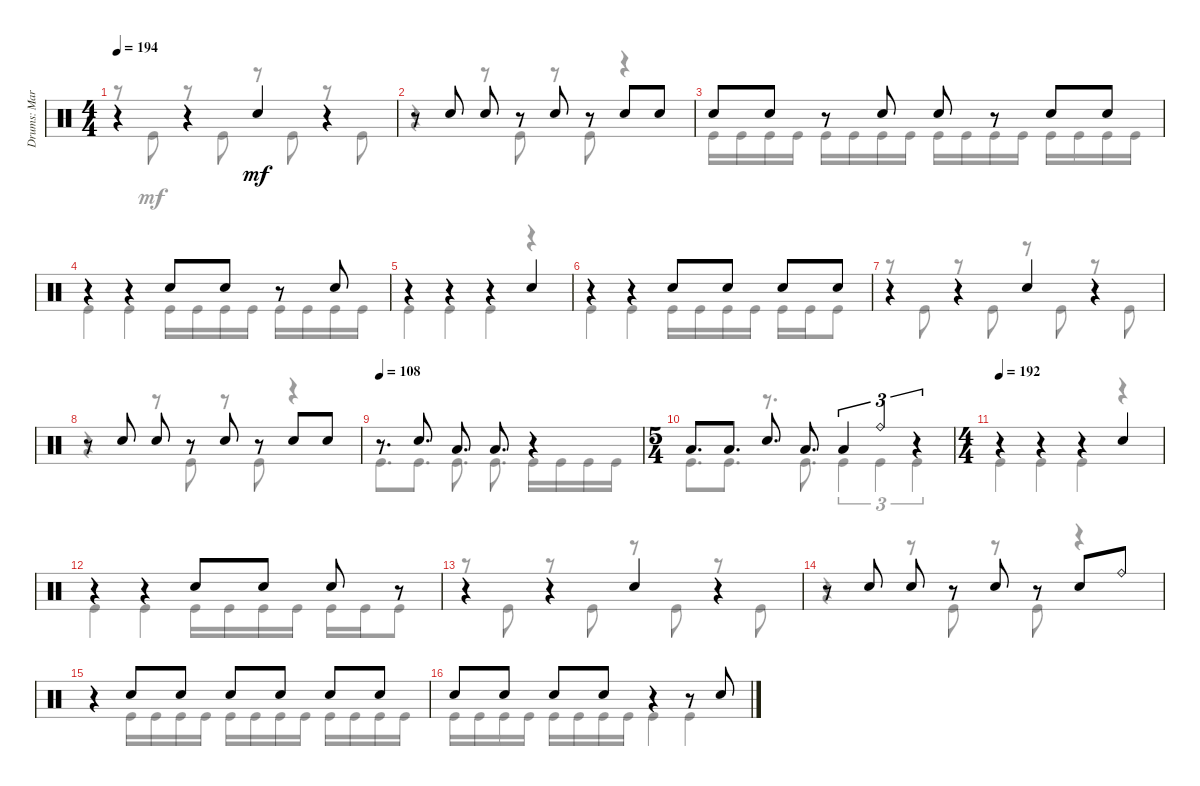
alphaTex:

\track ("Drums: Mario Duplantier" "Drums: Mar") {instrument percussion}
\staff {score}
\articulation defaults
\voice
\ts (4 4)
\tempo 194
\clef neutral
\ks c
r.4{dy mf} r.4 "Snare (hit) 2".4 r.4 |
r.8 "Snare (hit) 2".8 "Snare (hit) 2".8 r.8 "Snare (hit) 2".8 r.8 "Snare (hit) 2".8 "Snare (hit) 2".8 |
"Snare (hit) 2".8 "Snare (hit) 2".8 r.8 "Snare (hit) 2".8 "Snare (hit) 2".8 r.8 "Snare (hit) 2".8 "Snare (hit) 2".8 |
r.4 r.4 "Snare (hit) 2".8 "Snare (hit) 2".8 r.8 "Snare (hit) 2".8 |
r.4 r.4 r.4 "Snare (hit) 2".4 |
r.4 r.4 "Snare (hit) 2".8 "Snare (hit) 2".8 "Snare (hit) 2".8 "Snare (hit) 2".8 |
r.4 r.4 "Snare (hit) 2".4 r.4 |
r.8 "Snare (hit) 2".8 "Snare (hit) 2".8 r.8 "Snare (hit) 2".8 r.8 "Snare (hit) 2".8 "Snare (hit) 2".8 |
\tempo 108
r.8{d} "Snare (hit) 2".8{d} "Low Floor Tom (hit)".8{d} "Low Floor Tom (hit)".8{d} r.4 |
\ts (5 4)
"Low Floor Tom (hit)".8{d} "Low Floor Tom (hit)".8{d} "Snare (hit) 2".8{d} "Low Floor Tom (hit)".8{d} "Low Floor Tom (hit)".4{tu (3 2)} "Ride (bell)".4{tu (3 2)} r.4{tu (3 2)} |
\ts (4 4)
\tempo 192
r.4 r.4 r.4 "Snare (hit) 2".4 |
r.4 r.4 "Snare (hit) 2".8 "Snare (hit) 2".8 "Snare (hit) 2".8 r.8 |
r.4 r.4 "Snare (hit) 2".4 r.4 |
r.8 "Snare (hit) 2".8 "Snare (hit) 2".8 r.8 "Snare (hit) 2".8 r.8 "Snare (hit) 2".8 "Ride (bell)".8 |
r.4 "Snare (hit) 2".8 "Snare (hit) 2".8 "Snare (hit) 2".8 "Snare (hit) 2".8 "Snare (hit) 2".8 "Snare (hit) 2".8 |
"Snare (hit) 2".8 "Snare (hit) 2".8 "Snare (hit) 2".8 "Snare (hit) 2".8 r.4 r.8 "Snare (hit) 2".8
\voice
\clef neutral
\ottava regular
\simile none
\ks c
r.8{dy mf} "Kick (hit)".8 r.8 "Kick (hit)".8 r.8 "Kick (hit)".8 r.8 "Kick (hit)".8 |
r.4 r.8 "Kick (hit)".8 r.8 "Kick (hit)".8 r.4 |
"Kick (hit)".16 "Kick (hit)".16 "Kick (hit)".16 "Kick (hit)".16 "Kick (hit)".16 "Kick (hit)".16 "Kick (hit)".16 "Kick (hit)".16 "Kick (hit)".16 "Kick (hit)".16 "Kick (hit)".16 "Kick (hit)".16 "Kick (hit)".16 "Kick (hit)".16 "Kick (hit)".16 "Kick (hit)".16 |
"Kick (hit)".4 "Kick (hit)".4 "Kick (hit)".16 "Kick (hit)".16 "Kick (hit)".16 "Kick (hit)".16 "Kick (hit)".16 "Kick (hit)".16 "Kick (hit)".16 "Kick (hit)".16 |
"Kick (hit)".4 "Kick (hit)".4 "Kick (hit)".4 r.4 |
"Kick (hit)".4 "Kick (hit)".4 "Kick (hit)".16 "Kick (hit)".16 "Kick (hit)".16 "Kick (hit)".16 "Kick (hit)".16 "Kick (hit)".16 "Kick (hit)".8 |
r.8 "Kick (hit)".8 r.8 "Kick (hit)".8 r.8 "Kick (hit)".8 r.8 "Kick (hit)".8 |
r.4 r.8 "Kick (hit)".8 r.8 "Kick (hit)".8 r.4 |
"Kick (hit)".8{d} "Kick (hit)".8{d} "Kick (hit)".8{d} "Kick (hit)".8{d} "Kick (hit)".16 "Kick (hit)".16 "Kick (hit)".16 "Kick (hit)".16 |
"Kick (hit)".8{d} "Kick (hit)".8{d} r.8{d} "Kick (hit)".8{d} "Kick (hit)".4{tu (3 2)} "Kick (hit)".4{tu (3 2)} "Kick (hit)".4{tu (3 2)} |
"Kick (hit)".4 "Kick (hit)".4 "Kick (hit)".4 r.4 |
"Kick (hit)".4 "Kick (hit)".4 "Kick (hit)".16 "Kick (hit)".16 "Kick (hit)".16 "Kick (hit)".16 "Kick (hit)".16 "Kick (hit)".16 "Kick (hit)".8 |
r.8 "Kick (hit)".8 r.8 "Kick (hit)".8 r.8 "Kick (hit)".8 r.8 "Kick (hit)".8 |
r.4 r.8 "Kick (hit)".8 r.8 "Kick (hit)".8 r.4 |
r.4 "Kick (hit)".16 "Kick (hit)".16 "Kick (hit)".16 "Kick (hit)".16 "Kick (hit)".16 "Kick (hit)".16 "Kick (hit)".16 "Kick (hit)".16 "Kick (hit)".16 "Kick (hit)".16 "Kick (hit)".16 "Kick (hit)".16 |
"Kick (hit)".16 "Kick (hit)".16 "Kick (hit)".16 "Kick (hit)".16 "Kick (hit)".16 "Kick (hit)".16 "Kick (hit)".16 "Kick (hit)".16 "Kick (hit)".4 "Kick (hit)".4
